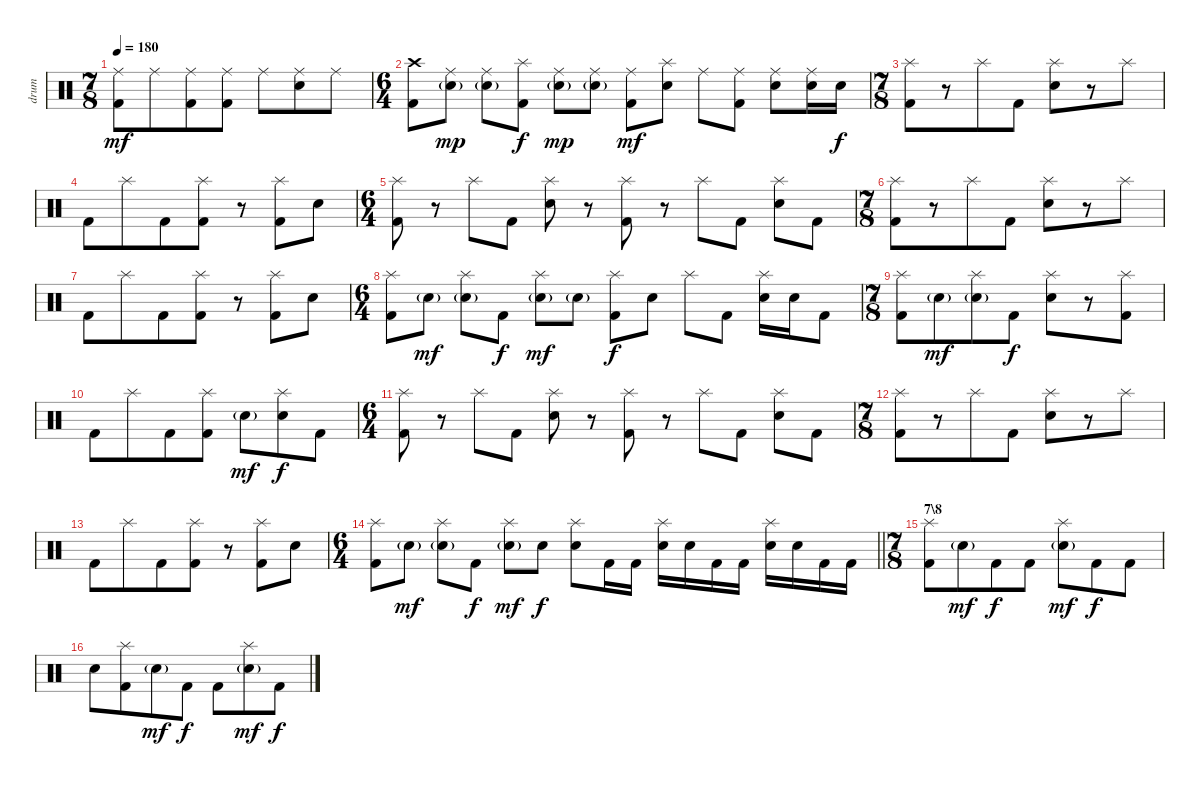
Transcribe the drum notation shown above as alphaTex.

\track ("drum" "drum") {instrument percussion}
\staff {score}
\articulation defaults
\ts (7 8)
\tempo 180
\clef neutral
\ks c
("Ride (middle)" "Kick (hit) 2").8{dy mf} "Ride (middle)".8 ("Ride (middle)" "Kick (hit) 2").8 ("Ride (middle)" "Kick (hit) 2").8 "Ride (middle)".8 ("Ride (middle)" "Electric Snare (hit)").8 "Ride (middle)".8 |
\ts (6 4)
("Crash high (hit)" "Kick (hit) 2").8 ("Ride (middle)" "Electric Snare (hit)"{g}).8{dy mp} ("Ride (middle)" "Electric Snare (hit)"{g}).8 ("Splash (hit)" "Kick (hit) 2").8{dy f} ("Ride (middle)" "Electric Snare (hit)"{g}).8{dy mp} ("Ride (middle)" "Electric Snare (hit)"{g}).8 ("Ride (middle)" "Kick (hit) 2").8{dy mf} ("Splash (hit)" "Electric Snare (hit)").8 "Ride (middle)".8 ("Ride (middle)" "Kick (hit) 2").8 ("Ride (middle)" "Electric Snare (hit)").8 ("Ride (middle)" "Electric Snare (hit)").16 "Electric Snare (hit)".16{dy f} |
\ts (7 8)
("Splash (hit)" "Kick (hit) 2").8 r.8 "Splash (hit)".8 "Kick (hit) 2".8 ("Splash (hit)" "Electric Snare (hit)").8 r.8 "Splash (hit)".8 |
"Kick (hit) 2".8 "Splash (hit)".8 "Kick (hit) 2".8 ("Splash (hit)" "Kick (hit) 2").8 r.8 ("Splash (hit)" "Kick (hit) 2").8 "Electric Snare (hit)".8 |
\ts (6 4)
("Splash (hit)" "Kick (hit) 2").8 r.8 "Splash (hit)".8 "Kick (hit) 2".8 ("Splash (hit)" "Electric Snare (hit)").8 r.8 ("Splash (hit)" "Kick (hit) 2").8 r.8 "Splash (hit)".8 "Kick (hit) 2".8 ("Splash (hit)" "Electric Snare (hit)").8 "Kick (hit) 2".8 |
\ts (7 8)
("Splash (hit)" "Kick (hit) 2").8 r.8 "Splash (hit)".8 "Kick (hit) 2".8 ("Splash (hit)" "Electric Snare (hit)").8 r.8 "Splash (hit)".8 |
"Kick (hit) 2".8 "Splash (hit)".8 "Kick (hit) 2".8 ("Splash (hit)" "Kick (hit) 2").8 r.8 ("Splash (hit)" "Kick (hit) 2").8 "Electric Snare (hit)".8 |
\ts (6 4)
("Splash (hit)" "Kick (hit) 2").8 "Electric Snare (hit)"{g}.8{dy mf} ("Splash (hit)" "Electric Snare (hit)"{g}).8 "Kick (hit) 2".8{dy f} ("Splash (hit)" "Electric Snare (hit)"{g}).8{dy mf} "Electric Snare (hit)"{g}.8 ("Splash (hit)" "Kick (hit) 2").8{dy f} "Electric Snare (hit)".8 "Splash (hit)".8 "Kick (hit) 2".8 ("Splash (hit)" "Electric Snare (hit)").16 "Electric Snare (hit)".16 "Kick (hit) 2".8 |
\ts (7 8)
("Splash (hit)" "Kick (hit) 2").8 "Electric Snare (hit)"{g}.8{dy mf} ("Splash (hit)" "Electric Snare (hit)"{g}).8 "Kick (hit) 2".8{dy f} ("Splash (hit)" "Electric Snare (hit)").8 r.8 ("Splash (hit)" "Kick (hit) 2").8 |
"Kick (hit) 2".8 "Splash (hit)".8 "Kick (hit) 2".8 ("Splash (hit)" "Kick (hit) 2").8 "Electric Snare (hit)"{g}.8{dy mf} ("Splash (hit)" "Electric Snare (hit)").8{dy f} "Kick (hit) 2".8 |
\ts (6 4)
("Splash (hit)" "Kick (hit) 2").8 r.8 "Splash (hit)".8 "Kick (hit) 2".8 ("Splash (hit)" "Electric Snare (hit)").8 r.8 ("Splash (hit)" "Kick (hit) 2").8 r.8 "Splash (hit)".8 "Kick (hit) 2".8 ("Splash (hit)" "Electric Snare (hit)").8 "Kick (hit) 2".8 |
\ts (7 8)
("Splash (hit)" "Kick (hit) 2").8 r.8 "Splash (hit)".8 "Kick (hit) 2".8 ("Splash (hit)" "Electric Snare (hit)").8 r.8 "Splash (hit)".8 |
"Kick (hit) 2".8 "Splash (hit)".8 "Kick (hit) 2".8 ("Splash (hit)" "Kick (hit) 2").8 r.8 ("Splash (hit)" "Kick (hit) 2").8 "Electric Snare (hit)".8 |
\ts (6 4)
\barLineRight lightlight
("Splash (hit)" "Kick (hit) 2").8 "Electric Snare (hit)"{g}.8{dy mf} ("Splash (hit)" "Electric Snare (hit)"{g}).8 "Kick (hit) 2".8{dy f} ("Splash (hit)" "Electric Snare (hit)"{g}).8{dy mf} "Electric Snare (hit)".8{dy f} ("Splash (hit)" "Electric Snare (hit)").8 "Kick (hit) 2".16 "Kick (hit) 2".16 ("Splash (hit)" "Electric Snare (hit)").16 "Electric Snare (hit)".16 "Kick (hit) 2".16 "Kick (hit) 2".16 ("Splash (hit)" "Electric Snare (hit)").16 "Electric Snare (hit)".16 "Kick (hit) 2".16 "Kick (hit) 2".16 |
\ts (7 8)
\section ("" "7\\8")
("Splash (hit)" "Kick (hit) 2").8 "Electric Snare (hit)"{g}.8{dy mf} "Kick (hit) 2".8{dy f} "Kick (hit) 2".8 ("Splash (hit)" "Electric Snare (hit)"{g}).8{dy mf} "Kick (hit) 2".8{dy f} "Kick (hit) 2".8 |
"Electric Snare (hit)".8 ("Splash (hit)" "Kick (hit) 2").8 "Electric Snare (hit)"{g}.8{dy mf} "Kick (hit) 2".8{dy f} "Kick (hit) 2".8 ("Splash (hit)" "Electric Snare (hit)"{g}).8{dy mf} "Kick (hit) 2".8{dy f}
